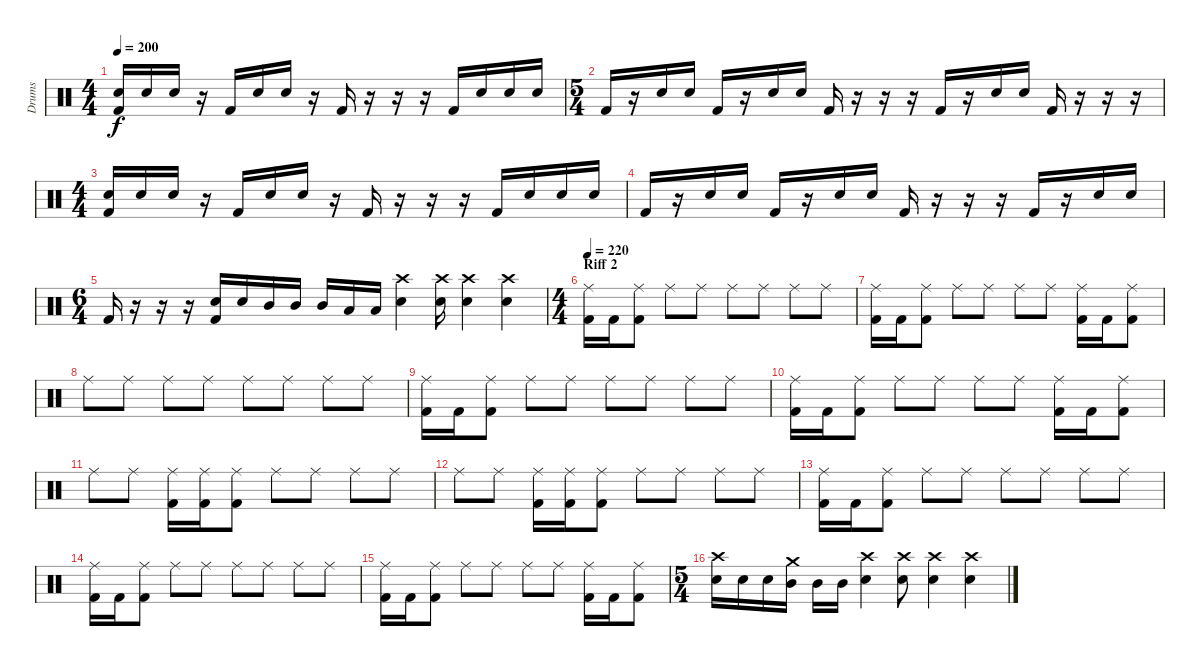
\track ("Drums" "Drums") {instrument percussion}
\staff {score}
\articulation defaults
\ts (4 4)
\tempo 200
\clef neutral
\ks c
("Electric Snare (hit)" "Kick (hit) 2").16{dy f} "Electric Snare (hit)".16 "Electric Snare (hit)".16 r.16 "Kick (hit) 2".16 "Electric Snare (hit)".16 "Electric Snare (hit)".16 r.16 "Kick (hit) 2".16 r.16 r.16 r.16 "Kick (hit) 2".16 "Electric Snare (hit)".16 "Electric Snare (hit)".16 "Electric Snare (hit)".16 |
\ts (5 4)
"Kick (hit) 2".16 r.16 "Electric Snare (hit)".16 "Electric Snare (hit)".16 "Kick (hit) 2".16 r.16 "Electric Snare (hit)".16 "Electric Snare (hit)".16 "Kick (hit) 2".16 r.16 r.16 r.16 "Kick (hit) 2".16 r.16 "Electric Snare (hit)".16 "Electric Snare (hit)".16 "Kick (hit) 2".16 r.16 r.16 r.16 |
\ts (4 4)
("Electric Snare (hit)" "Kick (hit) 2").16 "Electric Snare (hit)".16 "Electric Snare (hit)".16 r.16 "Kick (hit) 2".16 "Electric Snare (hit)".16 "Electric Snare (hit)".16 r.16 "Kick (hit) 2".16 r.16 r.16 r.16 "Kick (hit) 2".16 "Electric Snare (hit)".16 "Electric Snare (hit)".16 "Electric Snare (hit)".16 |
"Kick (hit) 2".16 r.16 "Electric Snare (hit)".16 "Electric Snare (hit)".16 "Kick (hit) 2".16 r.16 "Electric Snare (hit)".16 "Electric Snare (hit)".16 "Kick (hit) 2".16 r.16 r.16 r.16 "Kick (hit) 2".16 r.16 "Electric Snare (hit)".16 "Electric Snare (hit)".16 |
\ts (6 4)
"Kick (hit) 2".16 r.16 r.16 r.16 ("Electric Snare (hit)" "Kick (hit) 2").16 "Electric Snare (hit)".16 "Mid Tom (hit)".16 "Mid Tom (hit)".16 "Mid Tom (hit)".16 "Low Tom (hit)".16 "Low Tom (hit)".16 ("Crash high (hit)" "Electric Snare (hit)").4 ("Crash high (hit)" "Electric Snare (hit)").16 ("Crash high (hit)" "Electric Snare (hit)").4 ("Crash high (hit)" "Electric Snare (hit)").4 |
\ts (4 4)
\section ("" "Riff 2")
\tempo 220
("Ride (middle)" "Kick (hit) 2").16 "Kick (hit) 2".16 ("Ride (middle)" "Kick (hit) 2").8 "Ride (middle)".8 "Ride (middle)".8 "Ride (middle)".8 "Ride (middle)".8 "Ride (middle)".8 "Ride (middle)".8 |
("Ride (middle)" "Kick (hit) 2").16 "Kick (hit) 2".16 ("Ride (middle)" "Kick (hit) 2").8 "Ride (middle)".8 "Ride (middle)".8 "Ride (middle)".8 "Ride (middle)".8 ("Ride (middle)" "Kick (hit) 2").16 "Kick (hit) 2".16 ("Ride (middle)" "Kick (hit) 2").8 |
"Ride (middle)".8 "Ride (middle)".8 "Ride (middle)".8 "Ride (middle)".8 "Ride (middle)".8 "Ride (middle)".8 "Ride (middle)".8 "Ride (middle)".8 |
("Ride (middle)" "Kick (hit) 2").16 "Kick (hit) 2".16 ("Ride (middle)" "Kick (hit) 2").8 "Ride (middle)".8 "Ride (middle)".8 "Ride (middle)".8 "Ride (middle)".8 "Ride (middle)".8 "Ride (middle)".8 |
("Ride (middle)" "Kick (hit) 2").16 "Kick (hit) 2".16 ("Ride (middle)" "Kick (hit) 2").8 "Ride (middle)".8 "Ride (middle)".8 "Ride (middle)".8 "Ride (middle)".8 ("Ride (middle)" "Kick (hit) 2").16 "Kick (hit) 2".16 ("Ride (middle)" "Kick (hit) 2").8 |
"Ride (middle)".8 "Ride (middle)".8 ("Ride (middle)" "Kick (hit) 2").16 ("Ride (middle)" "Kick (hit) 2").16 ("Ride (middle)" "Kick (hit) 2").8 "Ride (middle)".8 "Ride (middle)".8 "Ride (middle)".8 "Ride (middle)".8 |
"Ride (middle)".8 "Ride (middle)".8 ("Ride (middle)" "Kick (hit) 2").16 ("Ride (middle)" "Kick (hit) 2").16 ("Ride (middle)" "Kick (hit) 2").8 "Ride (middle)".8 "Ride (middle)".8 "Ride (middle)".8 "Ride (middle)".8 |
("Ride (middle)" "Kick (hit) 2").16 "Kick (hit) 2".16 ("Ride (middle)" "Kick (hit) 2").8 "Ride (middle)".8 "Ride (middle)".8 "Ride (middle)".8 "Ride (middle)".8 "Ride (middle)".8 "Ride (middle)".8 |
("Ride (middle)" "Kick (hit) 2").16 "Kick (hit) 2".16 ("Ride (middle)" "Kick (hit) 2").8 "Ride (middle)".8 "Ride (middle)".8 "Ride (middle)".8 "Ride (middle)".8 "Ride (middle)".8 "Ride (middle)".8 |
("Ride (middle)" "Kick (hit) 2").16 "Kick (hit) 2".16 ("Ride (middle)" "Kick (hit) 2").8 "Ride (middle)".8 "Ride (middle)".8 "Ride (middle)".8 "Ride (middle)".8 ("Ride (middle)" "Kick (hit) 2").16 "Kick (hit) 2".16 ("Ride (middle)" "Kick (hit) 2").8 |
\ts (5 4)
("Crash high (hit)" "Electric Snare (hit)").16 "Electric Snare (hit)".16 "Electric Snare (hit)".16 ("Crash medium (hit)" "Mid Tom (hit)").16 "Mid Tom (hit)".16 "Mid Tom (hit)".16 ("Crash high (hit)" "Electric Snare (hit)").4 ("Crash high (hit)" "Electric Snare (hit)").8 ("Crash high (hit)" "Electric Snare (hit)").4 ("Crash high (hit)" "Electric Snare (hit)").4
